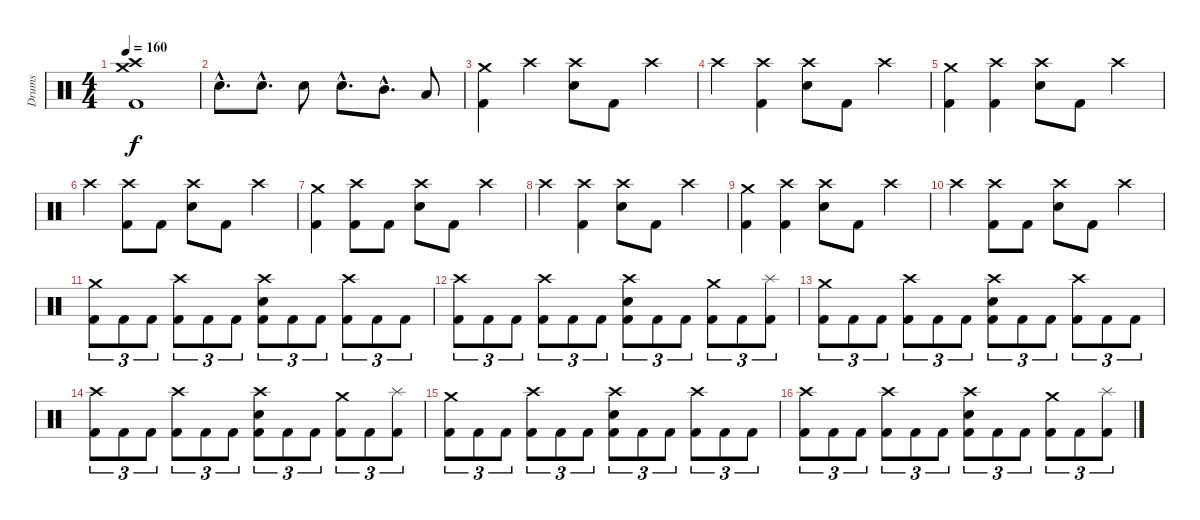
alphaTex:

\track ("Drums" "Drums") {instrument percussion}
\staff {score}
\articulation defaults
\ts (4 4)
\tempo 160
\clef neutral
\ks c
("Crash medium (hit)" "Crash high (hit)" "Kick (hit) 2").1{dy f} |
"Electric Snare (hit)"{hac}.8{d} "Electric Snare (hit)"{hac}.8{d} "Electric Snare (hit)".8 "Electric Snare (hit)"{hac}.8{d} "Mid Tom (hit)"{hac}.8{d} "Low Tom (hit)".8 |
("Crash medium (hit)" "Kick (hit) 2").4 "Crash high (hit)".4 ("Crash high (hit)" "Electric Snare (hit)").8 "Kick (hit) 2".8 "Crash high (hit)".4 |
"Crash high (hit)".4 ("Crash high (hit)" "Kick (hit) 2").4 ("Crash high (hit)" "Electric Snare (hit)").8 "Kick (hit) 2".8 "Crash high (hit)".4 |
("Crash medium (hit)" "Kick (hit) 2").4 ("Crash high (hit)" "Kick (hit) 2").4 ("Crash high (hit)" "Electric Snare (hit)").8 "Kick (hit) 2".8 "Crash high (hit)".4 |
"Crash high (hit)".4 ("Crash high (hit)" "Kick (hit) 2").8 "Kick (hit) 2".8 ("Crash high (hit)" "Electric Snare (hit)").8 "Kick (hit) 2".8 "Crash high (hit)".4 |
("Crash medium (hit)" "Kick (hit) 2").4 ("Crash high (hit)" "Kick (hit) 2").8 "Kick (hit) 2".8 ("Crash high (hit)" "Electric Snare (hit)").8 "Kick (hit) 2".8 "Crash high (hit)".4 |
"Crash high (hit)".4 ("Crash high (hit)" "Kick (hit) 2").4 ("Crash high (hit)" "Electric Snare (hit)").8 "Kick (hit) 2".8 "Crash high (hit)".4 |
("Crash medium (hit)" "Kick (hit) 2").4 ("Crash high (hit)" "Kick (hit) 2").4 ("Crash high (hit)" "Electric Snare (hit)").8 "Kick (hit) 2".8 "Crash high (hit)".4 |
"Crash high (hit)".4 ("Crash high (hit)" "Kick (hit) 2").8 "Kick (hit) 2".8 ("Crash high (hit)" "Electric Snare (hit)").8 "Kick (hit) 2".8 "Crash high (hit)".4 |
("Crash medium (hit)" "Kick (hit) 2").8{tu (3 2)} "Kick (hit) 2".8{tu (3 2)} "Kick (hit) 2".8{tu (3 2)} ("Crash high (hit)" "Kick (hit) 2").8{tu (3 2)} "Kick (hit) 2".8{tu (3 2)} "Kick (hit) 2".8{tu (3 2)} ("Crash high (hit)" "Electric Snare (hit)" "Kick (hit) 2").8{tu (3 2)} "Kick (hit) 2".8{tu (3 2)} "Kick (hit) 2".8{tu (3 2)} ("Crash high (hit)" "Kick (hit) 2").8{tu (3 2)} "Kick (hit) 2".8{tu (3 2)} "Kick (hit) 2".8{tu (3 2)} |
("Crash high (hit)" "Kick (hit) 2").8{tu (3 2)} "Kick (hit) 2".8{tu (3 2)} "Kick (hit) 2".8{tu (3 2)} ("Crash high (hit)" "Kick (hit) 2").8{tu (3 2)} "Kick (hit) 2".8{tu (3 2)} "Kick (hit) 2".8{tu (3 2)} ("Crash high (hit)" "Electric Snare (hit)" "Kick (hit) 2").8{tu (3 2)} "Kick (hit) 2".8{tu (3 2)} "Kick (hit) 2".8{tu (3 2)} ("Crash medium (hit)" "Kick (hit) 2").8{tu (3 2)} "Kick (hit) 2".8{tu (3 2)} ("Splash (hit)" "Kick (hit) 2").8{tu (3 2)} |
("Crash medium (hit)" "Kick (hit) 2").8{tu (3 2)} "Kick (hit) 2".8{tu (3 2)} "Kick (hit) 2".8{tu (3 2)} ("Crash high (hit)" "Kick (hit) 2").8{tu (3 2)} "Kick (hit) 2".8{tu (3 2)} "Kick (hit) 2".8{tu (3 2)} ("Crash high (hit)" "Electric Snare (hit)" "Kick (hit) 2").8{tu (3 2)} "Kick (hit) 2".8{tu (3 2)} "Kick (hit) 2".8{tu (3 2)} ("Crash high (hit)" "Kick (hit) 2").8{tu (3 2)} "Kick (hit) 2".8{tu (3 2)} "Kick (hit) 2".8{tu (3 2)} |
("Crash high (hit)" "Kick (hit) 2").8{tu (3 2)} "Kick (hit) 2".8{tu (3 2)} "Kick (hit) 2".8{tu (3 2)} ("Crash high (hit)" "Kick (hit) 2").8{tu (3 2)} "Kick (hit) 2".8{tu (3 2)} "Kick (hit) 2".8{tu (3 2)} ("Crash high (hit)" "Electric Snare (hit)" "Kick (hit) 2").8{tu (3 2)} "Kick (hit) 2".8{tu (3 2)} "Kick (hit) 2".8{tu (3 2)} ("Crash medium (hit)" "Kick (hit) 2").8{tu (3 2)} "Kick (hit) 2".8{tu (3 2)} ("Splash (hit)" "Kick (hit) 2").8{tu (3 2)} |
("Crash medium (hit)" "Kick (hit) 2").8{tu (3 2)} "Kick (hit) 2".8{tu (3 2)} "Kick (hit) 2".8{tu (3 2)} ("Crash high (hit)" "Kick (hit) 2").8{tu (3 2)} "Kick (hit) 2".8{tu (3 2)} "Kick (hit) 2".8{tu (3 2)} ("Crash high (hit)" "Electric Snare (hit)" "Kick (hit) 2").8{tu (3 2)} "Kick (hit) 2".8{tu (3 2)} "Kick (hit) 2".8{tu (3 2)} ("Crash high (hit)" "Kick (hit) 2").8{tu (3 2)} "Kick (hit) 2".8{tu (3 2)} "Kick (hit) 2".8{tu (3 2)} |
("Crash high (hit)" "Kick (hit) 2").8{tu (3 2)} "Kick (hit) 2".8{tu (3 2)} "Kick (hit) 2".8{tu (3 2)} ("Crash high (hit)" "Kick (hit) 2").8{tu (3 2)} "Kick (hit) 2".8{tu (3 2)} "Kick (hit) 2".8{tu (3 2)} ("Crash high (hit)" "Electric Snare (hit)" "Kick (hit) 2").8{tu (3 2)} "Kick (hit) 2".8{tu (3 2)} "Kick (hit) 2".8{tu (3 2)} ("Crash medium (hit)" "Kick (hit) 2").8{tu (3 2)} "Kick (hit) 2".8{tu (3 2)} ("Splash (hit)" "Kick (hit) 2").8{tu (3 2)}
